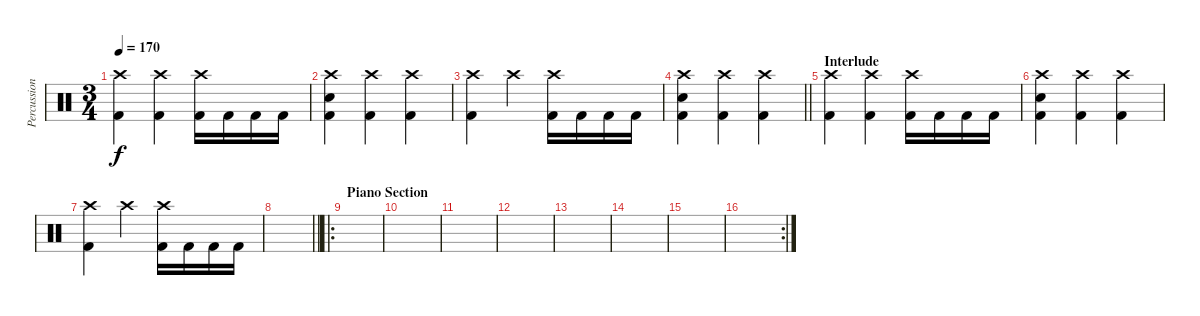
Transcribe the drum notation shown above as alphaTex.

\track ("Percussion" "Percussion") {instrument percussion}
\staff {score}
\articulation defaults
\ts (3 4)
\tempo 170
\clef neutral
\ks c
("Crash high (hit)" "Kick (hit) 2").4{dy f} ("Crash high (hit)" "Kick (hit) 2").4 ("Crash high (hit)" "Kick (hit) 2").16 "Kick (hit) 2".16 "Kick (hit) 2".16 "Kick (hit) 2".16 |
("Crash high (hit)" "Electric Snare (hit)" "Kick (hit) 2").4 ("Crash high (hit)" "Kick (hit) 2").4 ("Crash high (hit)" "Kick (hit) 2").4 |
("Crash high (hit)" "Kick (hit) 2").4 "Crash high (hit)".4 ("Crash high (hit)" "Kick (hit) 2").16 "Kick (hit) 2".16 "Kick (hit) 2".16 "Kick (hit) 2".16 |
\barLineRight lightlight
("Crash high (hit)" "Electric Snare (hit)" "Kick (hit) 2").4 ("Crash high (hit)" "Kick (hit) 2").4 ("Crash high (hit)" "Kick (hit) 2").4 |
\section ("" "Interlude")
("Crash high (hit)" "Kick (hit) 2").4 ("Crash high (hit)" "Kick (hit) 2").4 ("Crash high (hit)" "Kick (hit) 2").16 "Kick (hit) 2".16 "Kick (hit) 2".16 "Kick (hit) 2".16 |
("Crash high (hit)" "Electric Snare (hit)" "Kick (hit) 2").4 ("Crash high (hit)" "Kick (hit) 2").4 ("Crash high (hit)" "Kick (hit) 2").4 |
("Crash high (hit)" "Kick (hit) 2").4 "Crash high (hit)".4 ("Crash high (hit)" "Kick (hit) 2").16 "Kick (hit) 2".16 "Kick (hit) 2".16 "Kick (hit) 2".16 |
\barLineRight lightlight
|
\ro
\section ("" "Piano Section")
|
|
|
|
|
|
|
\rc 2
